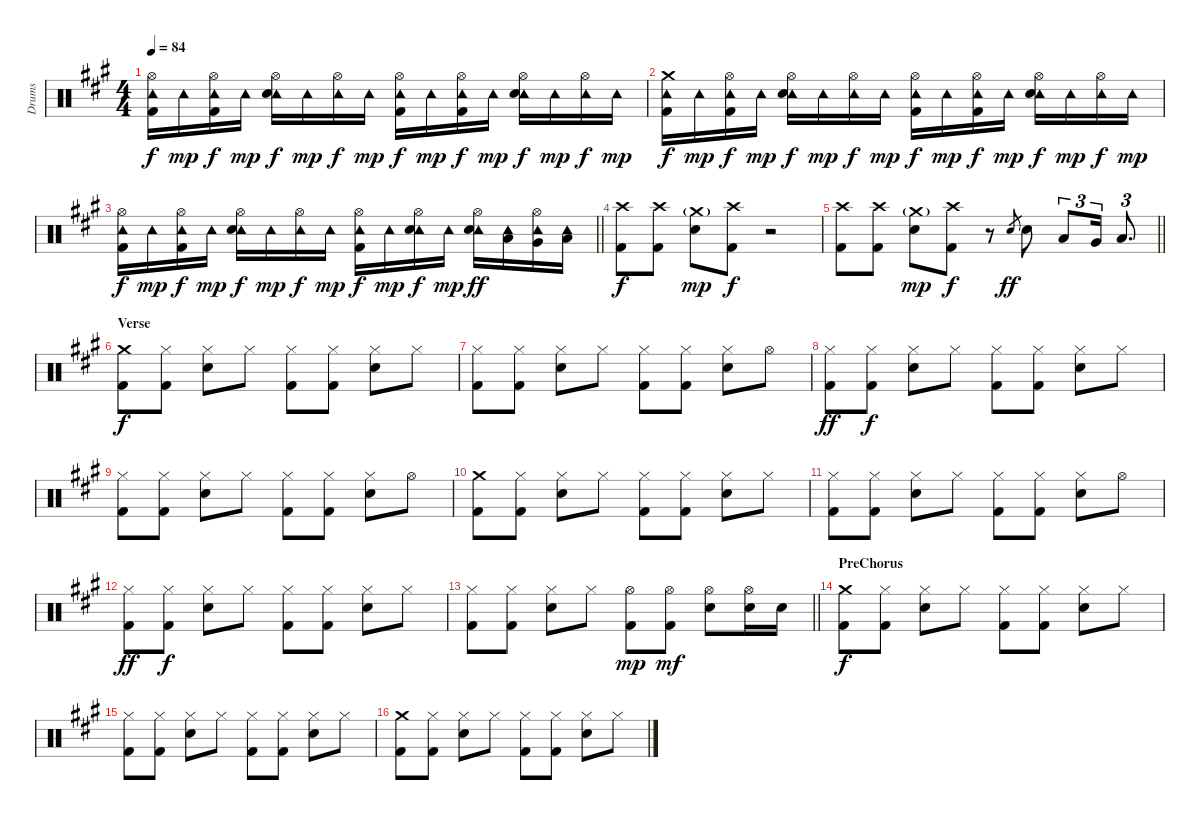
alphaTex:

\track ("Drums" "Drums") {instrument percussion}
\staff {score}
\articulation defaults
\ts (4 4)
\tempo 84
\clef neutral
\ks a
("Hi-Hat (open)" "Tambourine (hit)" "Kick (hit) 2").16{dy f} "Tambourine (hit)".16{dy mp} ("Hi-Hat (open)" "Tambourine (hit)" "Kick (hit) 2").16{dy f} "Tambourine (hit)".16{dy mp} ("Hi-Hat (open)" "Tambourine (hit)" "Electric Snare (hit)").16{dy f} "Tambourine (hit)".16{dy mp} ("Hi-Hat (open)" "Tambourine (hit)").16{dy f} "Tambourine (hit)".16{dy mp} ("Hi-Hat (open)" "Tambourine (hit)" "Kick (hit) 2").16{dy f} "Tambourine (hit)".16{dy mp} ("Hi-Hat (open)" "Tambourine (hit)" "Kick (hit) 2").16{dy f} "Tambourine (hit)".16{dy mp} ("Hi-Hat (open)" "Tambourine (hit)" "Electric Snare (hit)").16{dy f} "Tambourine (hit)".16{dy mp} ("Hi-Hat (open)" "Tambourine (hit)").16{dy f} "Tambourine (hit)".16{dy mp} |
("Crash medium (hit)" "Tambourine (hit)" "Kick (hit) 2").16{dy f} "Tambourine (hit)".16{dy mp} ("Hi-Hat (open)" "Tambourine (hit)" "Kick (hit) 2").16{dy f} "Tambourine (hit)".16{dy mp} ("Hi-Hat (open)" "Tambourine (hit)" "Electric Snare (hit)").16{dy f} "Tambourine (hit)".16{dy mp} ("Hi-Hat (open)" "Tambourine (hit)").16{dy f} "Tambourine (hit)".16{dy mp} ("Hi-Hat (open)" "Tambourine (hit)" "Kick (hit) 2").16{dy f} "Tambourine (hit)".16{dy mp} ("Hi-Hat (open)" "Tambourine (hit)" "Kick (hit) 2").16{dy f} "Tambourine (hit)".16{dy mp} ("Hi-Hat (open)" "Tambourine (hit)" "Electric Snare (hit)").16{dy f} "Tambourine (hit)".16{dy mp} ("Hi-Hat (open)" "Tambourine (hit)").16{dy f} "Tambourine (hit)".16{dy mp} |
\barLineRight lightlight
("Hi-Hat (open)" "Tambourine (hit)" "Kick (hit) 2").16{dy f} "Tambourine (hit)".16{dy mp} ("Hi-Hat (open)" "Tambourine (hit)" "Kick (hit) 2").16{dy f} "Tambourine (hit)".16{dy mp} ("Hi-Hat (open)" "Tambourine (hit)" "Electric Snare (hit)").16{dy f} "Tambourine (hit)".16{dy mp} ("Hi-Hat (open)" "Tambourine (hit)").16{dy f} "Tambourine (hit)".16{dy mp} ("Hi-Hat (open)" "Tambourine (hit)" "Kick (hit) 2").16{dy f} "Tambourine (hit)".16{dy mp} ("Hi-Hat (open)" "Tambourine (hit)" "Electric Snare (hit)").16{dy f} "Tambourine (hit)".16{dy mp} ("Hi-Hat (open)" "Tambourine (hit)" "Electric Snare (hit)").16{dy ff} ("Tambourine (hit)" "Low Tom (hit)").16 ("Hi-Hat (open)" "Tambourine (hit)" "Very Low Tom (hit)").16 ("Tambourine (hit)" "Low Floor Tom (hit)").16 |
("Crash high (hit)" "Kick (hit) 2").8{dy f} ("Crash high (hit)" "Kick (hit) 2").8 ("Crash medium (hit)"{g} "Electric Snare (hit)").8{dy mp} ("Crash high (hit)" "Kick (hit) 2").8{dy f} r.2 |
\barLineRight lightlight
("Crash high (hit)" "Kick (hit) 2").8 ("Crash high (hit)" "Kick (hit) 2").8 ("Crash medium (hit)"{g} "Electric Snare (hit)").8{dy mp} ("Crash high (hit)" "Kick (hit) 2").8{dy f} r.8 "Electric Snare (hit)".8{gr dy ff} "Electric Snare (hit)".8 "Low Tom (hit)".8{tu (3 2)} "Very Low Tom (hit)".16{tu (3 2)} "Low Floor Tom (hit)".8{d tu (3 2)} |
\section ("" "Verse")
("Crash medium (hit)" "Kick (hit) 2").8{dy f} ("Hi-Hat (closed)" "Kick (hit) 2").8 ("Hi-Hat (closed)" "Electric Snare (hit)").8 "Hi-Hat (closed)".8 ("Hi-Hat (closed)" "Kick (hit) 2").8 ("Hi-Hat (closed)" "Kick (hit) 2").8 ("Hi-Hat (closed)" "Electric Snare (hit)").8 "Hi-Hat (closed)".8 |
("Hi-Hat (closed)" "Kick (hit) 2").8 ("Hi-Hat (closed)" "Kick (hit) 2").8 ("Hi-Hat (closed)" "Electric Snare (hit)").8 "Hi-Hat (closed)".8 ("Hi-Hat (closed)" "Kick (hit) 2").8 ("Hi-Hat (closed)" "Kick (hit) 2").8 ("Hi-Hat (closed)" "Electric Snare (hit)").8 "Hi-Hat (open)".8 |
("Hi-Hat (closed)" "Kick (hit) 2").8{dy ff} ("Hi-Hat (closed)" "Kick (hit) 2").8{dy f} ("Hi-Hat (closed)" "Electric Snare (hit)").8 "Hi-Hat (closed)".8 ("Hi-Hat (closed)" "Kick (hit) 2").8 ("Hi-Hat (closed)" "Kick (hit) 2").8 ("Hi-Hat (closed)" "Electric Snare (hit)").8 "Hi-Hat (closed)".8 |
("Hi-Hat (closed)" "Kick (hit) 2").8 ("Hi-Hat (closed)" "Kick (hit) 2").8 ("Hi-Hat (closed)" "Electric Snare (hit)").8 "Hi-Hat (closed)".8 ("Hi-Hat (closed)" "Kick (hit) 2").8 ("Hi-Hat (closed)" "Kick (hit) 2").8 ("Hi-Hat (closed)" "Electric Snare (hit)").8 "Hi-Hat (open)".8 |
("Crash medium (hit)" "Kick (hit) 2").8 ("Hi-Hat (closed)" "Kick (hit) 2").8 ("Hi-Hat (closed)" "Electric Snare (hit)").8 "Hi-Hat (closed)".8 ("Hi-Hat (closed)" "Kick (hit) 2").8 ("Hi-Hat (closed)" "Kick (hit) 2").8 ("Hi-Hat (closed)" "Electric Snare (hit)").8 "Hi-Hat (closed)".8 |
("Hi-Hat (closed)" "Kick (hit) 2").8 ("Hi-Hat (closed)" "Kick (hit) 2").8 ("Hi-Hat (closed)" "Electric Snare (hit)").8 "Hi-Hat (closed)".8 ("Hi-Hat (closed)" "Kick (hit) 2").8 ("Hi-Hat (closed)" "Kick (hit) 2").8 ("Hi-Hat (closed)" "Electric Snare (hit)").8 "Hi-Hat (open)".8 |
("Hi-Hat (closed)" "Kick (hit) 2").8{dy ff} ("Hi-Hat (closed)" "Kick (hit) 2").8{dy f} ("Hi-Hat (closed)" "Electric Snare (hit)").8 "Hi-Hat (closed)".8 ("Hi-Hat (closed)" "Kick (hit) 2").8 ("Hi-Hat (closed)" "Kick (hit) 2").8 ("Hi-Hat (closed)" "Electric Snare (hit)").8 "Hi-Hat (closed)".8 |
\barLineRight lightlight
("Hi-Hat (closed)" "Kick (hit) 2").8 ("Hi-Hat (closed)" "Kick (hit) 2").8 ("Hi-Hat (closed)" "Electric Snare (hit)").8 "Hi-Hat (closed)".8 ("Hi-Hat (open)" "Kick (hit) 2").8{dy mp} ("Hi-Hat (open)" "Kick (hit) 2").8{dy mf} ("Hi-Hat (open)" "Electric Snare (hit)").8 ("Hi-Hat (open)" "Electric Snare (hit)").16 "Electric Snare (hit)".16 |
\section ("" "PreChorus")
("Crash medium (hit)" "Kick (hit) 2").8{dy f} ("Hi-Hat (closed)" "Kick (hit) 2").8 ("Hi-Hat (closed)" "Electric Snare (hit)").8 "Hi-Hat (closed)".8 ("Hi-Hat (closed)" "Kick (hit) 2").8 ("Hi-Hat (closed)" "Kick (hit) 2").8 ("Hi-Hat (closed)" "Electric Snare (hit)").8 "Hi-Hat (closed)".8 |
("Hi-Hat (closed)" "Kick (hit) 2").8 ("Hi-Hat (closed)" "Kick (hit) 2").8 ("Hi-Hat (closed)" "Electric Snare (hit)").8 "Hi-Hat (closed)".8 ("Hi-Hat (closed)" "Kick (hit) 2").8 ("Hi-Hat (closed)" "Kick (hit) 2").8 ("Hi-Hat (closed)" "Electric Snare (hit)").8 "Hi-Hat (closed)".8 |
("Crash medium (hit)" "Kick (hit) 2").8 ("Hi-Hat (closed)" "Kick (hit) 2").8 ("Hi-Hat (closed)" "Electric Snare (hit)").8 "Hi-Hat (closed)".8 ("Hi-Hat (closed)" "Kick (hit) 2").8 ("Hi-Hat (closed)" "Kick (hit) 2").8 ("Hi-Hat (closed)" "Electric Snare (hit)").8 "Hi-Hat (closed)".8
